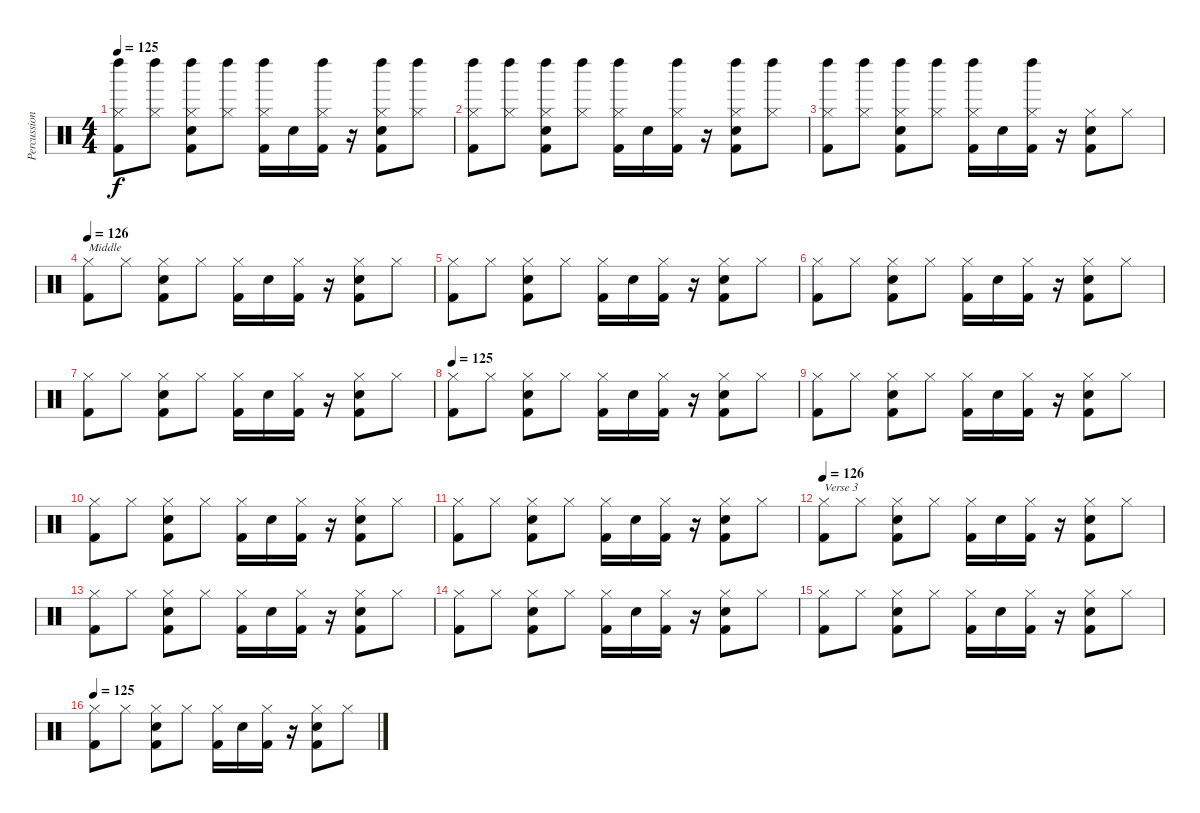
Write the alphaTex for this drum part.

\track ("Percussion" "Percussion") {instrument percussion}
\staff {score}
\articulation defaults
\ts (4 4)
\tempo 125
\clef neutral
\ks c
("Hi-Hat (closed)" "Kick (hit) 2" "Left Maraca (hit)").8{dy f} ("Hi-Hat (closed)" "Left Maraca (hit)").8 ("Hi-Hat (closed)" "Electric Snare (hit)" "Kick (hit) 2" "Left Maraca (hit)").8 ("Hi-Hat (closed)" "Left Maraca (hit)").8 ("Hi-Hat (closed)" "Kick (hit) 2" "Left Maraca (hit)").16 "Electric Snare (hit)".16 ("Hi-Hat (closed)" "Kick (hit) 2" "Left Maraca (hit)").16 r.16 ("Hi-Hat (closed)" "Electric Snare (hit)" "Kick (hit) 2" "Left Maraca (hit)").8 ("Hi-Hat (closed)" "Left Maraca (hit)").8 |
("Hi-Hat (closed)" "Kick (hit) 2" "Left Maraca (hit)").8 ("Hi-Hat (closed)" "Left Maraca (hit)").8 ("Hi-Hat (closed)" "Electric Snare (hit)" "Kick (hit) 2" "Left Maraca (hit)").8 ("Hi-Hat (closed)" "Left Maraca (hit)").8 ("Hi-Hat (closed)" "Kick (hit) 2" "Left Maraca (hit)").16 "Electric Snare (hit)".16 ("Hi-Hat (closed)" "Kick (hit) 2" "Left Maraca (hit)").16 r.16 ("Hi-Hat (closed)" "Electric Snare (hit)" "Kick (hit) 2" "Left Maraca (hit)").8 ("Hi-Hat (closed)" "Left Maraca (hit)").8 |
("Hi-Hat (closed)" "Kick (hit) 2" "Left Maraca (hit)").8 ("Hi-Hat (closed)" "Left Maraca (hit)").8 ("Hi-Hat (closed)" "Electric Snare (hit)" "Kick (hit) 2" "Left Maraca (hit)").8 ("Hi-Hat (closed)" "Left Maraca (hit)").8 ("Hi-Hat (closed)" "Kick (hit) 2" "Left Maraca (hit)").16 "Electric Snare (hit)".16 ("Hi-Hat (closed)" "Kick (hit) 2" "Left Maraca (hit)").16 r.16 ("Hi-Hat (closed)" "Electric Snare (hit)" "Kick (hit) 2").8 "Hi-Hat (closed)".8 |
\tempo 126
("Hi-Hat (closed)" "Kick (hit) 2").8{txt "Middle"} "Hi-Hat (closed)".8 ("Hi-Hat (closed)" "Electric Snare (hit)" "Kick (hit) 2").8 "Hi-Hat (closed)".8 ("Hi-Hat (closed)" "Kick (hit) 2").16 "Electric Snare (hit)".16 ("Hi-Hat (closed)" "Kick (hit) 2").16 r.16 ("Hi-Hat (closed)" "Electric Snare (hit)" "Kick (hit) 2").8 "Hi-Hat (closed)".8 |
("Hi-Hat (closed)" "Kick (hit) 2").8 "Hi-Hat (closed)".8 ("Hi-Hat (closed)" "Electric Snare (hit)" "Kick (hit) 2").8 "Hi-Hat (closed)".8 ("Hi-Hat (closed)" "Kick (hit) 2").16 "Electric Snare (hit)".16 ("Hi-Hat (closed)" "Kick (hit) 2").16 r.16 ("Hi-Hat (closed)" "Electric Snare (hit)" "Kick (hit) 2").8 "Hi-Hat (closed)".8 |
("Hi-Hat (closed)" "Kick (hit) 2").8 "Hi-Hat (closed)".8 ("Hi-Hat (closed)" "Electric Snare (hit)" "Kick (hit) 2").8 "Hi-Hat (closed)".8 ("Hi-Hat (closed)" "Kick (hit) 2").16 "Electric Snare (hit)".16 ("Hi-Hat (closed)" "Kick (hit) 2").16 r.16 ("Hi-Hat (closed)" "Electric Snare (hit)" "Kick (hit) 2").8 "Hi-Hat (closed)".8 |
("Hi-Hat (closed)" "Kick (hit) 2").8 "Hi-Hat (closed)".8 ("Hi-Hat (closed)" "Electric Snare (hit)" "Kick (hit) 2").8 "Hi-Hat (closed)".8 ("Hi-Hat (closed)" "Kick (hit) 2").16 "Electric Snare (hit)".16 ("Hi-Hat (closed)" "Kick (hit) 2").16 r.16 ("Hi-Hat (closed)" "Electric Snare (hit)" "Kick (hit) 2").8 "Hi-Hat (closed)".8 |
\tempo 125
("Hi-Hat (closed)" "Kick (hit) 2").8 "Hi-Hat (closed)".8 ("Hi-Hat (closed)" "Electric Snare (hit)" "Kick (hit) 2").8 "Hi-Hat (closed)".8 ("Hi-Hat (closed)" "Kick (hit) 2").16 "Electric Snare (hit)".16 ("Hi-Hat (closed)" "Kick (hit) 2").16 r.16 ("Hi-Hat (closed)" "Electric Snare (hit)" "Kick (hit) 2").8 "Hi-Hat (closed)".8 |
("Hi-Hat (closed)" "Kick (hit) 2").8 "Hi-Hat (closed)".8 ("Hi-Hat (closed)" "Electric Snare (hit)" "Kick (hit) 2").8 "Hi-Hat (closed)".8 ("Hi-Hat (closed)" "Kick (hit) 2").16 "Electric Snare (hit)".16 ("Hi-Hat (closed)" "Kick (hit) 2").16 r.16 ("Hi-Hat (closed)" "Electric Snare (hit)" "Kick (hit) 2").8 "Hi-Hat (closed)".8 |
("Hi-Hat (closed)" "Kick (hit) 2").8 "Hi-Hat (closed)".8 ("Hi-Hat (closed)" "Electric Snare (hit)" "Kick (hit) 2").8 "Hi-Hat (closed)".8 ("Hi-Hat (closed)" "Kick (hit) 2").16 "Electric Snare (hit)".16 ("Hi-Hat (closed)" "Kick (hit) 2").16 r.16 ("Hi-Hat (closed)" "Electric Snare (hit)" "Kick (hit) 2").8 "Hi-Hat (closed)".8 |
("Hi-Hat (closed)" "Kick (hit) 2").8 "Hi-Hat (closed)".8 ("Hi-Hat (closed)" "Electric Snare (hit)" "Kick (hit) 2").8 "Hi-Hat (closed)".8 ("Hi-Hat (closed)" "Kick (hit) 2").16 "Electric Snare (hit)".16 ("Hi-Hat (closed)" "Kick (hit) 2").16 r.16 ("Hi-Hat (closed)" "Electric Snare (hit)" "Kick (hit) 2").8 "Hi-Hat (closed)".8 |
\tempo 126
("Hi-Hat (closed)" "Kick (hit) 2").8{txt "Verse 3"} "Hi-Hat (closed)".8 ("Hi-Hat (closed)" "Electric Snare (hit)" "Kick (hit) 2").8 "Hi-Hat (closed)".8 ("Hi-Hat (closed)" "Kick (hit) 2").16 "Electric Snare (hit)".16 ("Hi-Hat (closed)" "Kick (hit) 2").16 r.16 ("Hi-Hat (closed)" "Electric Snare (hit)" "Kick (hit) 2").8 "Hi-Hat (closed)".8 |
("Hi-Hat (closed)" "Kick (hit) 2").8 "Hi-Hat (closed)".8 ("Hi-Hat (closed)" "Electric Snare (hit)" "Kick (hit) 2").8 "Hi-Hat (closed)".8 ("Hi-Hat (closed)" "Kick (hit) 2").16 "Electric Snare (hit)".16 ("Hi-Hat (closed)" "Kick (hit) 2").16 r.16 ("Hi-Hat (closed)" "Electric Snare (hit)" "Kick (hit) 2").8 "Hi-Hat (closed)".8 |
("Hi-Hat (closed)" "Kick (hit) 2").8 "Hi-Hat (closed)".8 ("Hi-Hat (closed)" "Electric Snare (hit)" "Kick (hit) 2").8 "Hi-Hat (closed)".8 ("Hi-Hat (closed)" "Kick (hit) 2").16 "Electric Snare (hit)".16 ("Hi-Hat (closed)" "Kick (hit) 2").16 r.16 ("Hi-Hat (closed)" "Electric Snare (hit)" "Kick (hit) 2").8 "Hi-Hat (closed)".8 |
("Hi-Hat (closed)" "Kick (hit) 2").8 "Hi-Hat (closed)".8 ("Hi-Hat (closed)" "Electric Snare (hit)" "Kick (hit) 2").8 "Hi-Hat (closed)".8 ("Hi-Hat (closed)" "Kick (hit) 2").16 "Electric Snare (hit)".16 ("Hi-Hat (closed)" "Kick (hit) 2").16 r.16 ("Hi-Hat (closed)" "Electric Snare (hit)" "Kick (hit) 2").8 "Hi-Hat (closed)".8 |
\tempo 125
("Hi-Hat (closed)" "Kick (hit) 2").8 "Hi-Hat (closed)".8 ("Hi-Hat (closed)" "Electric Snare (hit)" "Kick (hit) 2").8 "Hi-Hat (closed)".8 ("Hi-Hat (closed)" "Kick (hit) 2").16 "Electric Snare (hit)".16 ("Hi-Hat (closed)" "Kick (hit) 2").16 r.16 ("Hi-Hat (closed)" "Electric Snare (hit)" "Kick (hit) 2").8 "Hi-Hat (closed)".8
